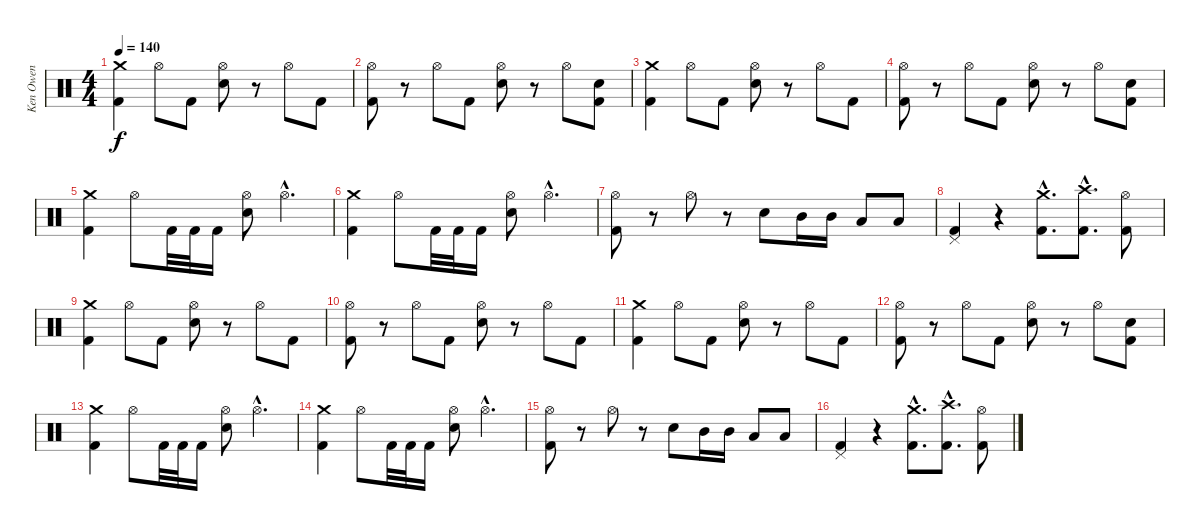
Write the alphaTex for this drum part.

\track ("Ken Owen" "Ken Owen") {instrument percussion}
\staff {score}
\articulation defaults
\ts (4 4)
\tempo 140
\clef neutral
\ks c
("Crash medium (hit)" "Kick (hit) 2").4{dy f} "Hi-Hat (open)".8 "Kick (hit) 2".8 ("Hi-Hat (open)" "Electric Snare (hit)").8 r.8 "Hi-Hat (open)".8 "Kick (hit) 2".8 |
("Hi-Hat (open)" "Kick (hit) 2").8 r.8 "Hi-Hat (open)".8 "Kick (hit) 2".8 ("Hi-Hat (open)" "Electric Snare (hit)").8 r.8 "Hi-Hat (open)".8 ("Electric Snare (hit)" "Kick (hit) 2").8 |
("Crash medium (hit)" "Kick (hit) 2").4 "Hi-Hat (open)".8 "Kick (hit) 2".8 ("Hi-Hat (open)" "Electric Snare (hit)").8 r.8 "Hi-Hat (open)".8 "Kick (hit) 2".8 |
("Hi-Hat (open)" "Kick (hit) 2").8 r.8 "Hi-Hat (open)".8 "Kick (hit) 2".8 ("Hi-Hat (open)" "Electric Snare (hit)").8 r.8 "Hi-Hat (open)".8 ("Electric Snare (hit)" "Kick (hit) 2").8 |
("Crash medium (hit)" "Kick (hit) 2").4 "Hi-Hat (open)".8 "Kick (hit) 2".32 "Kick (hit) 2".32 "Kick (hit) 2".16 ("Hi-Hat (open)" "Electric Snare (hit)").8 "Hi-Hat (open)"{hac}.4{d} |
("Crash medium (hit)" "Kick (hit) 2").4 "Hi-Hat (open)".8 "Kick (hit) 2".32 "Kick (hit) 2".32 "Kick (hit) 2".16 ("Hi-Hat (open)" "Electric Snare (hit)").8 "Hi-Hat (open)"{hac}.4{d} |
("Hi-Hat (open)" "Kick (hit) 2").8 r.8 "Hi-Hat (open)".8 r.8 "Electric Snare (hit)".8 "Mid Tom (hit)".16 "Mid Tom (hit)".16 "Low Floor Tom (hit)".8 "Low Floor Tom (hit)".8 |
("Pedal Hi-Hat (hit)" "Kick (hit) 2").4 r.4 ("Crash medium (hit)"{hac} "Kick (hit) 2"{hac}).8{d} ("Crash high (hit)"{hac} "Kick (hit) 2"{hac}).8{d} ("Hi-Hat (open)" "Kick (hit) 2").8 |
("Crash medium (hit)" "Kick (hit) 2").4 "Hi-Hat (open)".8 "Kick (hit) 2".8 ("Hi-Hat (open)" "Electric Snare (hit)").8 r.8 "Hi-Hat (open)".8 "Kick (hit) 2".8 |
("Hi-Hat (open)" "Kick (hit) 2").8 r.8 "Hi-Hat (open)".8 "Kick (hit) 2".8 ("Hi-Hat (open)" "Electric Snare (hit)").8 r.8 "Hi-Hat (open)".8 "Kick (hit) 2".8 |
("Crash medium (hit)" "Kick (hit) 2").4 "Hi-Hat (open)".8 "Kick (hit) 2".8 ("Hi-Hat (open)" "Electric Snare (hit)").8 r.8 "Hi-Hat (open)".8 "Kick (hit) 2".8 |
("Hi-Hat (open)" "Kick (hit) 2").8 r.8 "Hi-Hat (open)".8 "Kick (hit) 2".8 ("Hi-Hat (open)" "Electric Snare (hit)").8 r.8 "Hi-Hat (open)".8 ("Electric Snare (hit)" "Kick (hit) 2").8 |
("Crash medium (hit)" "Kick (hit) 2").4 "Hi-Hat (open)".8 "Kick (hit) 2".32 "Kick (hit) 2".32 "Kick (hit) 2".16 ("Hi-Hat (open)" "Electric Snare (hit)").8 "Hi-Hat (open)"{hac}.4{d} |
("Crash medium (hit)" "Kick (hit) 2").4 "Hi-Hat (open)".8 "Kick (hit) 2".32 "Kick (hit) 2".32 "Kick (hit) 2".16 ("Hi-Hat (open)" "Electric Snare (hit)").8 "Hi-Hat (open)"{hac}.4{d} |
("Hi-Hat (open)" "Kick (hit) 2").8 r.8 "Hi-Hat (open)".8 r.8 "Electric Snare (hit)".8 "Mid Tom (hit)".16 "Mid Tom (hit)".16 "Low Floor Tom (hit)".8 "Low Floor Tom (hit)".8 |
("Pedal Hi-Hat (hit)" "Kick (hit) 2").4 r.4 ("Crash medium (hit)"{hac} "Kick (hit) 2"{hac}).8{d} ("Crash high (hit)"{hac} "Kick (hit) 2"{hac}).8{d} ("Hi-Hat (open)" "Kick (hit) 2").8
